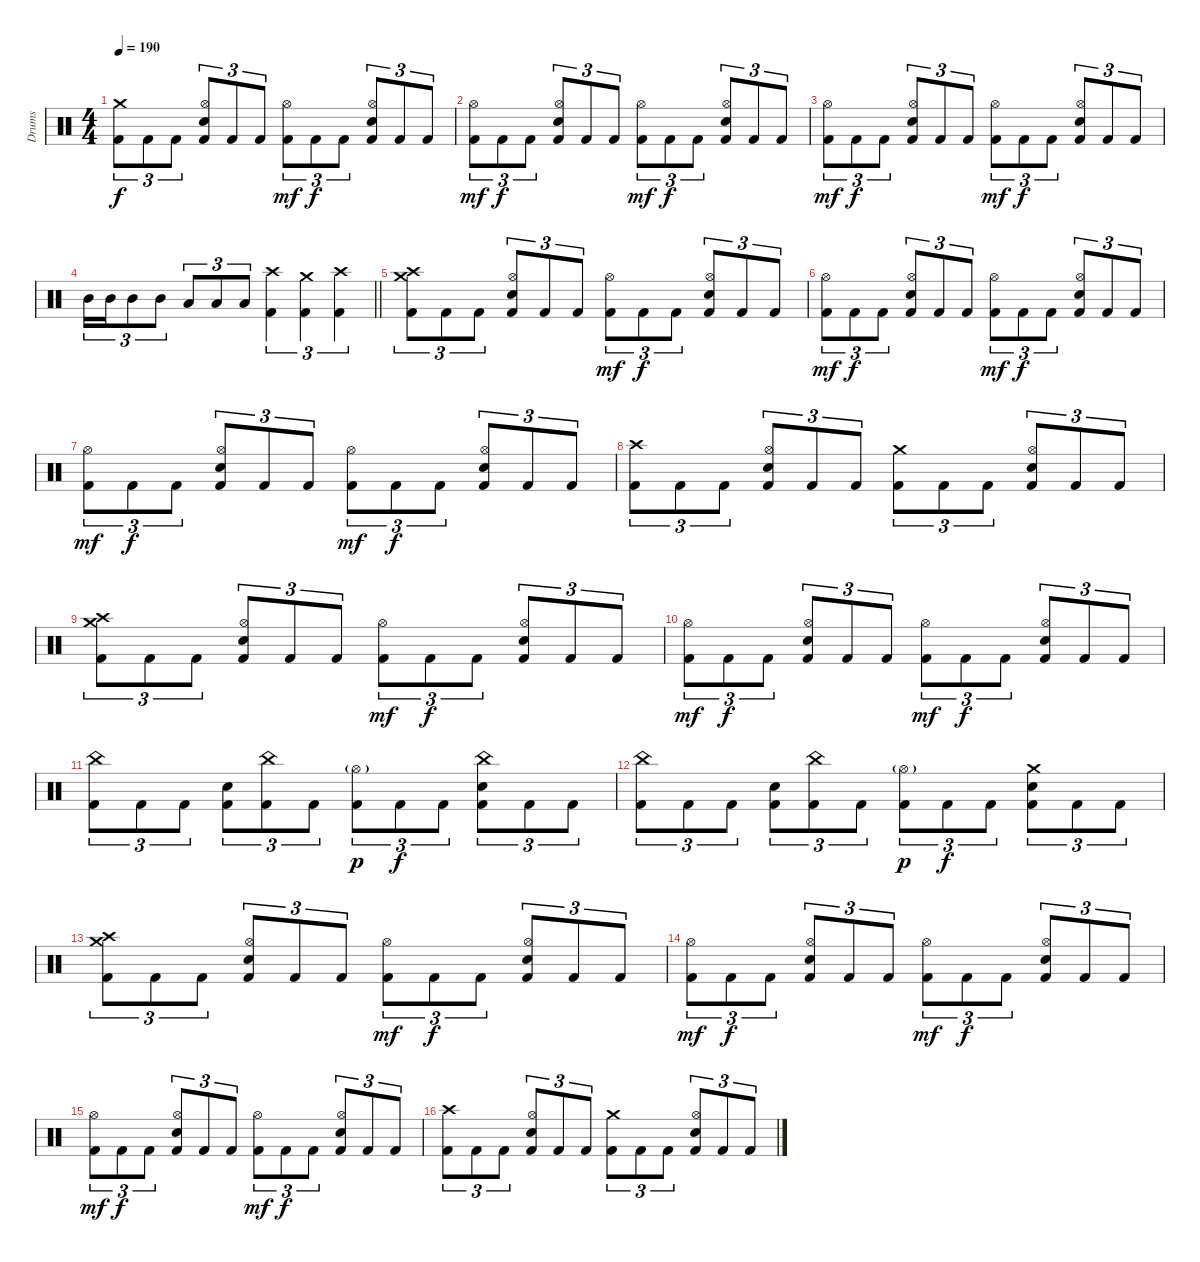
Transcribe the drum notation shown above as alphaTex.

\track ("Drums" "Drums") {instrument percussion}
\staff {score}
\articulation defaults
\ts (4 4)
\tempo 190
\clef neutral
\ks c
("Crash medium (hit)" "Kick (hit) 2").8{tu (3 2) dy f} "Kick (hit) 2".8{tu (3 2)} "Kick (hit) 2".8{tu (3 2)} ("Hi-Hat (open)" "Electric Snare (hit)" "Kick (hit) 2").8{tu (3 2)} "Kick (hit) 2".8{tu (3 2)} "Kick (hit) 2".8{tu (3 2)} ("Hi-Hat (open)" "Kick (hit) 2").8{tu (3 2) dy mf} "Kick (hit) 2".8{tu (3 2) dy f} "Kick (hit) 2".8{tu (3 2)} ("Hi-Hat (open)" "Electric Snare (hit)" "Kick (hit) 2").8{tu (3 2)} "Kick (hit) 2".8{tu (3 2)} "Kick (hit) 2".8{tu (3 2)} |
("Hi-Hat (open)" "Kick (hit) 2").8{tu (3 2) dy mf} "Kick (hit) 2".8{tu (3 2) dy f} "Kick (hit) 2".8{tu (3 2)} ("Hi-Hat (open)" "Electric Snare (hit)" "Kick (hit) 2").8{tu (3 2)} "Kick (hit) 2".8{tu (3 2)} "Kick (hit) 2".8{tu (3 2)} ("Hi-Hat (open)" "Kick (hit) 2").8{tu (3 2) dy mf} "Kick (hit) 2".8{tu (3 2) dy f} "Kick (hit) 2".8{tu (3 2)} ("Hi-Hat (open)" "Electric Snare (hit)" "Kick (hit) 2").8{tu (3 2)} "Kick (hit) 2".8{tu (3 2)} "Kick (hit) 2".8{tu (3 2)} |
("Hi-Hat (open)" "Kick (hit) 2").8{tu (3 2) dy mf} "Kick (hit) 2".8{tu (3 2) dy f} "Kick (hit) 2".8{tu (3 2)} ("Hi-Hat (open)" "Electric Snare (hit)" "Kick (hit) 2").8{tu (3 2)} "Kick (hit) 2".8{tu (3 2)} "Kick (hit) 2".8{tu (3 2)} ("Hi-Hat (open)" "Kick (hit) 2").8{tu (3 2) dy mf} "Kick (hit) 2".8{tu (3 2) dy f} "Kick (hit) 2".8{tu (3 2)} ("Hi-Hat (open)" "Electric Snare (hit)" "Kick (hit) 2").8{tu (3 2)} "Kick (hit) 2".8{tu (3 2)} "Kick (hit) 2".8{tu (3 2)} |
\barLineRight lightlight "Mid Tom (hit)".16{tu (3 2)} "Mid Tom (hit)".16{tu (3 2)} "Mid Tom (hit)".8{tu (3 2)} "Mid Tom (hit)".8{tu (3 2)} "Low Tom (hit)".8{tu (3 2)} "Low Tom (hit)".8{tu (3 2)} "Low Tom (hit)".8{tu (3 2)}
("Crash high (hit)" "Kick (hit) 2").4{tu (3 2)} ("Crash medium (hit)" "Kick (hit) 2").4{tu (3 2)} ("Crash high (hit)" "Kick (hit) 2").4{tu (3 2)} |
("Crash high (hit)" "Crash medium (hit)" "Kick (hit) 2").8{tu (3 2)} "Kick (hit) 2".8{tu (3 2)} "Kick (hit) 2".8{tu (3 2)} ("Hi-Hat (open)" "Electric Snare (hit)" "Kick (hit) 2").8{tu (3 2)} "Kick (hit) 2".8{tu (3 2)} "Kick (hit) 2".8{tu (3 2)} ("Hi-Hat (open)" "Kick (hit) 2").8{tu (3 2) dy mf} "Kick (hit) 2".8{tu (3 2) dy f} "Kick (hit) 2".8{tu (3 2)} ("Hi-Hat (open)" "Electric Snare (hit)" "Kick (hit) 2").8{tu (3 2)} "Kick (hit) 2".8{tu (3 2)} "Kick (hit) 2".8{tu (3 2)} |
("Hi-Hat (open)" "Kick (hit) 2").8{tu (3 2) dy mf} "Kick (hit) 2".8{tu (3 2) dy f} "Kick (hit) 2".8{tu (3 2)} ("Hi-Hat (open)" "Electric Snare (hit)" "Kick (hit) 2").8{tu (3 2)} "Kick (hit) 2".8{tu (3 2)} "Kick (hit) 2".8{tu (3 2)} ("Hi-Hat (open)" "Kick (hit) 2").8{tu (3 2) dy mf} "Kick (hit) 2".8{tu (3 2) dy f} "Kick (hit) 2".8{tu (3 2)} ("Hi-Hat (open)" "Electric Snare (hit)" "Kick (hit) 2").8{tu (3 2)} "Kick (hit) 2".8{tu (3 2)} "Kick (hit) 2".8{tu (3 2)} |
("Hi-Hat (open)" "Kick (hit) 2").8{tu (3 2) dy mf} "Kick (hit) 2".8{tu (3 2) dy f} "Kick (hit) 2".8{tu (3 2)} ("Hi-Hat (open)" "Electric Snare (hit)" "Kick (hit) 2").8{tu (3 2)} "Kick (hit) 2".8{tu (3 2)} "Kick (hit) 2".8{tu (3 2)} ("Hi-Hat (open)" "Kick (hit) 2").8{tu (3 2) dy mf} "Kick (hit) 2".8{tu (3 2) dy f} "Kick (hit) 2".8{tu (3 2)} ("Hi-Hat (open)" "Electric Snare (hit)" "Kick (hit) 2").8{tu (3 2)} "Kick (hit) 2".8{tu (3 2)} "Kick (hit) 2".8{tu (3 2)} |
("Crash high (hit)" "Kick (hit) 2").8{tu (3 2)} "Kick (hit) 2".8{tu (3 2)} "Kick (hit) 2".8{tu (3 2)} ("Hi-Hat (open)" "Electric Snare (hit)" "Kick (hit) 2").8{tu (3 2)} "Kick (hit) 2".8{tu (3 2)} "Kick (hit) 2".8{tu (3 2)} ("Crash medium (hit)" "Kick (hit) 2").8{tu (3 2)} "Kick (hit) 2".8{tu (3 2)} "Kick (hit) 2".8{tu (3 2)} ("Hi-Hat (open)" "Electric Snare (hit)" "Kick (hit) 2").8{tu (3 2)} "Kick (hit) 2".8{tu (3 2)} "Kick (hit) 2".8{tu (3 2)} |
("Crash high (hit)" "Crash medium (hit)" "Kick (hit) 2").8{tu (3 2)} "Kick (hit) 2".8{tu (3 2)} "Kick (hit) 2".8{tu (3 2)} ("Hi-Hat (open)" "Electric Snare (hit)" "Kick (hit) 2").8{tu (3 2)} "Kick (hit) 2".8{tu (3 2)} "Kick (hit) 2".8{tu (3 2)} ("Hi-Hat (open)" "Kick (hit) 2").8{tu (3 2) dy mf} "Kick (hit) 2".8{tu (3 2) dy f} "Kick (hit) 2".8{tu (3 2)} ("Hi-Hat (open)" "Electric Snare (hit)" "Kick (hit) 2").8{tu (3 2)} "Kick (hit) 2".8{tu (3 2)} "Kick (hit) 2".8{tu (3 2)} |
("Hi-Hat (open)" "Kick (hit) 2").8{tu (3 2) dy mf} "Kick (hit) 2".8{tu (3 2) dy f} "Kick (hit) 2".8{tu (3 2)} ("Hi-Hat (open)" "Electric Snare (hit)" "Kick (hit) 2").8{tu (3 2)} "Kick (hit) 2".8{tu (3 2)} "Kick (hit) 2".8{tu (3 2)} ("Hi-Hat (open)" "Kick (hit) 2").8{tu (3 2) dy mf} "Kick (hit) 2".8{tu (3 2) dy f} "Kick (hit) 2".8{tu (3 2)} ("Hi-Hat (open)" "Electric Snare (hit)" "Kick (hit) 2").8{tu (3 2)} "Kick (hit) 2".8{tu (3 2)} "Kick (hit) 2".8{tu (3 2)} |
("China (hit)" "Kick (hit) 2").8{tu (3 2)} "Kick (hit) 2".8{tu (3 2)} "Kick (hit) 2".8{tu (3 2)} ("Electric Snare (hit)" "Kick (hit) 2").8{tu (3 2)} ("China (hit)" "Kick (hit) 2").8{tu (3 2)} "Kick (hit) 2".8{tu (3 2)} ("Hi-Hat (open)"{g} "Kick (hit) 2").8{tu (3 2) dy p} "Kick (hit) 2".8{tu (3 2) dy f} "Kick (hit) 2".8{tu (3 2)} ("China (hit)" "Electric Snare (hit)" "Kick (hit) 2").8{tu (3 2)} "Kick (hit) 2".8{tu (3 2)} "Kick (hit) 2".8{tu (3 2)} |
("China (hit)" "Kick (hit) 2").8{tu (3 2)} "Kick (hit) 2".8{tu (3 2)} "Kick (hit) 2".8{tu (3 2)} ("Electric Snare (hit)" "Kick (hit) 2").8{tu (3 2)} ("China (hit)" "Kick (hit) 2").8{tu (3 2)} "Kick (hit) 2".8{tu (3 2)} ("Hi-Hat (open)"{g} "Kick (hit) 2").8{tu (3 2) dy p} "Kick (hit) 2".8{tu (3 2) dy f} "Kick (hit) 2".8{tu (3 2)} ("Crash medium (hit)" "Electric Snare (hit)" "Kick (hit) 2").8{tu (3 2)} "Kick (hit) 2".8{tu (3 2)} "Kick (hit) 2".8{tu (3 2)} |
("Crash high (hit)" "Crash medium (hit)" "Kick (hit) 2").8{tu (3 2)} "Kick (hit) 2".8{tu (3 2)} "Kick (hit) 2".8{tu (3 2)} ("Hi-Hat (open)" "Electric Snare (hit)" "Kick (hit) 2").8{tu (3 2)} "Kick (hit) 2".8{tu (3 2)} "Kick (hit) 2".8{tu (3 2)} ("Hi-Hat (open)" "Kick (hit) 2").8{tu (3 2) dy mf} "Kick (hit) 2".8{tu (3 2) dy f} "Kick (hit) 2".8{tu (3 2)} ("Hi-Hat (open)" "Electric Snare (hit)" "Kick (hit) 2").8{tu (3 2)} "Kick (hit) 2".8{tu (3 2)} "Kick (hit) 2".8{tu (3 2)} |
("Hi-Hat (open)" "Kick (hit) 2").8{tu (3 2) dy mf} "Kick (hit) 2".8{tu (3 2) dy f} "Kick (hit) 2".8{tu (3 2)} ("Hi-Hat (open)" "Electric Snare (hit)" "Kick (hit) 2").8{tu (3 2)} "Kick (hit) 2".8{tu (3 2)} "Kick (hit) 2".8{tu (3 2)} ("Hi-Hat (open)" "Kick (hit) 2").8{tu (3 2) dy mf} "Kick (hit) 2".8{tu (3 2) dy f} "Kick (hit) 2".8{tu (3 2)} ("Hi-Hat (open)" "Electric Snare (hit)" "Kick (hit) 2").8{tu (3 2)} "Kick (hit) 2".8{tu (3 2)} "Kick (hit) 2".8{tu (3 2)} |
("Hi-Hat (open)" "Kick (hit) 2").8{tu (3 2) dy mf} "Kick (hit) 2".8{tu (3 2) dy f} "Kick (hit) 2".8{tu (3 2)} ("Hi-Hat (open)" "Electric Snare (hit)" "Kick (hit) 2").8{tu (3 2)} "Kick (hit) 2".8{tu (3 2)} "Kick (hit) 2".8{tu (3 2)} ("Hi-Hat (open)" "Kick (hit) 2").8{tu (3 2) dy mf} "Kick (hit) 2".8{tu (3 2) dy f} "Kick (hit) 2".8{tu (3 2)} ("Hi-Hat (open)" "Electric Snare (hit)" "Kick (hit) 2").8{tu (3 2)} "Kick (hit) 2".8{tu (3 2)} "Kick (hit) 2".8{tu (3 2)} |
("Crash high (hit)" "Kick (hit) 2").8{tu (3 2)} "Kick (hit) 2".8{tu (3 2)} "Kick (hit) 2".8{tu (3 2)} ("Hi-Hat (open)" "Electric Snare (hit)" "Kick (hit) 2").8{tu (3 2)} "Kick (hit) 2".8{tu (3 2)} "Kick (hit) 2".8{tu (3 2)} ("Crash medium (hit)" "Kick (hit) 2").8{tu (3 2)} "Kick (hit) 2".8{tu (3 2)} "Kick (hit) 2".8{tu (3 2)} ("Hi-Hat (open)" "Electric Snare (hit)" "Kick (hit) 2").8{tu (3 2)} "Kick (hit) 2".8{tu (3 2)} "Kick (hit) 2".8{tu (3 2)}
